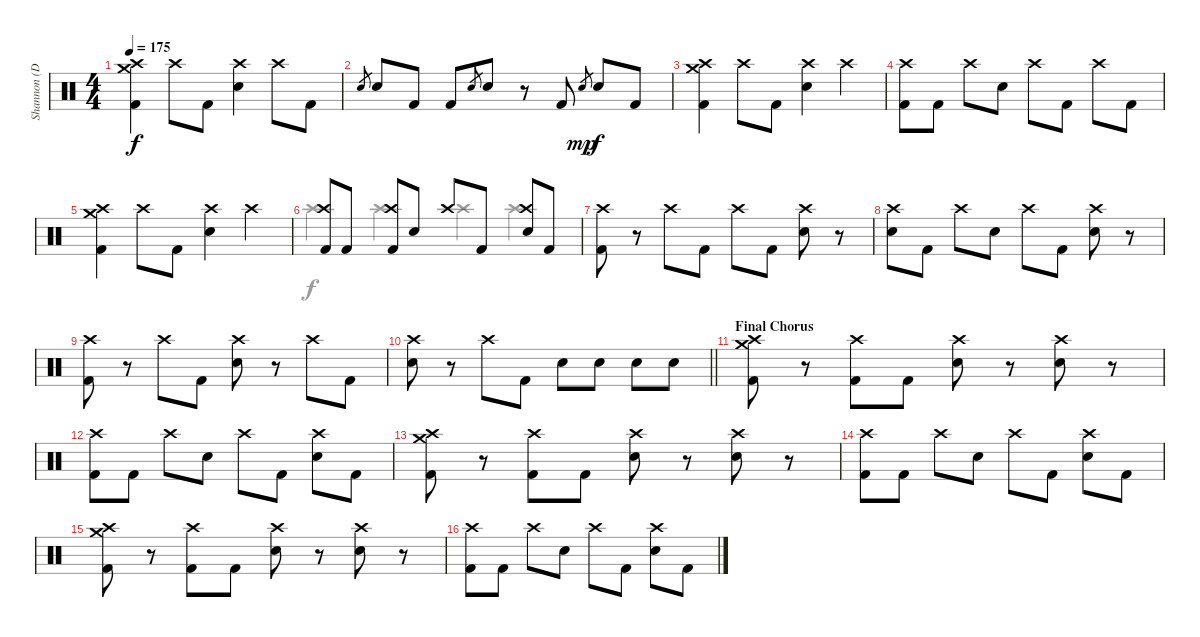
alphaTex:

\track ("Shannon (Drum)" "Shannon (D") {instrument percussion}
\staff {score}
\articulation defaults
\voice
\ts (4 4)
\tempo 175
\clef neutral
\ks c
("Crash high (hit)" "Crash medium (hit)" "Kick (hit) 2").4{dy f} "Crash high (hit)".8 "Kick (hit) 2".8 ("Crash high (hit)" "Electric Snare (hit)").4 "Crash high (hit)".8 "Kick (hit) 2".8 |
"Electric Snare (hit)".8{gr} "Electric Snare (hit)".8 "Kick (hit) 2".8 "Kick (hit) 2".8 "Electric Snare (hit)".8{gr} "Electric Snare (hit)".8 r.8 "Kick (hit) 2".8 "Electric Snare (hit)".8{gr dy mp} "Electric Snare (hit)".8{dy f} "Kick (hit) 2".8 |
("Crash high (hit)" "Crash medium (hit)" "Kick (hit) 2").4 "Crash high (hit)".8 "Kick (hit) 2".8 ("Crash high (hit)" "Electric Snare (hit)").4 "Crash high (hit)".4 |
("Crash high (hit)" "Kick (hit) 2").8 "Kick (hit) 2".8 "Crash high (hit)".8 "Electric Snare (hit)".8 "Crash high (hit)".8 "Kick (hit) 2".8 "Crash high (hit)".8 "Kick (hit) 2".8 |
("Crash high (hit)" "Crash medium (hit)" "Kick (hit) 2").4 "Crash high (hit)".8 "Kick (hit) 2".8 ("Crash high (hit)" "Electric Snare (hit)").4 "Crash high (hit)".4 |
("Crash high (hit)" "Kick (hit) 2").8 "Kick (hit) 2".8 ("Crash high (hit)" "Kick (hit) 2").8 "Electric Snare (hit)".8 "Crash high (hit)".8 "Kick (hit) 2".8 ("Crash high (hit)" "Electric Snare (hit)").8 "Kick (hit) 2".8 |
("Crash high (hit)" "Kick (hit) 2").8 r.8 "Crash high (hit)".8 "Kick (hit) 2".8 "Crash high (hit)".8 "Kick (hit) 2".8 ("Crash high (hit)" "Electric Snare (hit)").8 r.8 |
("Crash high (hit)" "Electric Snare (hit)").8 "Kick (hit) 2".8 "Crash high (hit)".8 "Electric Snare (hit)".8 "Crash high (hit)".8 "Kick (hit) 2".8 ("Crash high (hit)" "Electric Snare (hit)").8 r.8 |
("Crash high (hit)" "Kick (hit) 2").8 r.8 "Crash high (hit)".8 "Kick (hit) 2".8 ("Crash high (hit)" "Electric Snare (hit)").8 r.8 "Crash high (hit)".8 "Kick (hit) 2".8 |
\barLineRight lightlight
("Crash high (hit)" "Electric Snare (hit)").8 r.8 "Crash high (hit)".8 "Kick (hit) 2".8 "Electric Snare (hit)".8 "Electric Snare (hit)".8 "Electric Snare (hit)".8 "Electric Snare (hit)".8 |
\section ("" "Final Chorus")
("Crash high (hit)" "Crash medium (hit)" "Kick (hit) 2").8 r.8 ("Crash high (hit)" "Kick (hit) 2").8 "Kick (hit) 2".8 ("Crash high (hit)" "Electric Snare (hit)").8 r.8 ("Crash high (hit)" "Electric Snare (hit)").8 r.8 |
("Crash high (hit)" "Kick (hit) 2").8 "Kick (hit) 2".8 "Crash high (hit)".8 "Electric Snare (hit)".8 "Crash high (hit)".8 "Kick (hit) 2".8 ("Crash high (hit)" "Electric Snare (hit)").8 "Kick (hit) 2".8 |
("Crash high (hit)" "Crash medium (hit)" "Kick (hit) 2").8 r.8 ("Crash high (hit)" "Kick (hit) 2").8 "Kick (hit) 2".8 ("Crash high (hit)" "Electric Snare (hit)").8 r.8 ("Crash high (hit)" "Electric Snare (hit)").8 r.8 |
("Crash high (hit)" "Kick (hit) 2").8 "Kick (hit) 2".8 "Crash high (hit)".8 "Electric Snare (hit)".8 "Crash high (hit)".8 "Kick (hit) 2".8 ("Crash high (hit)" "Electric Snare (hit)").8 "Kick (hit) 2".8 |
("Crash high (hit)" "Crash medium (hit)" "Kick (hit) 2").8 r.8 ("Crash high (hit)" "Kick (hit) 2").8 "Kick (hit) 2".8 ("Crash high (hit)" "Electric Snare (hit)").8 r.8 ("Crash high (hit)" "Electric Snare (hit)").8 r.8 |
("Crash high (hit)" "Kick (hit) 2").8 "Kick (hit) 2".8 "Crash high (hit)".8 "Electric Snare (hit)".8 "Crash high (hit)".8 "Kick (hit) 2".8 ("Crash high (hit)" "Electric Snare (hit)").8 "Kick (hit) 2".8
\voice
\clef neutral
\ottava regular
\simile none
\ks c
|
|
|
|
|
"Crash high (hit)".4 "Crash high (hit)".4 "Crash high (hit)".4 "Crash high (hit)".4 |
|
|
|
\barLineRight lightlight
|
|
|
|
|
|
